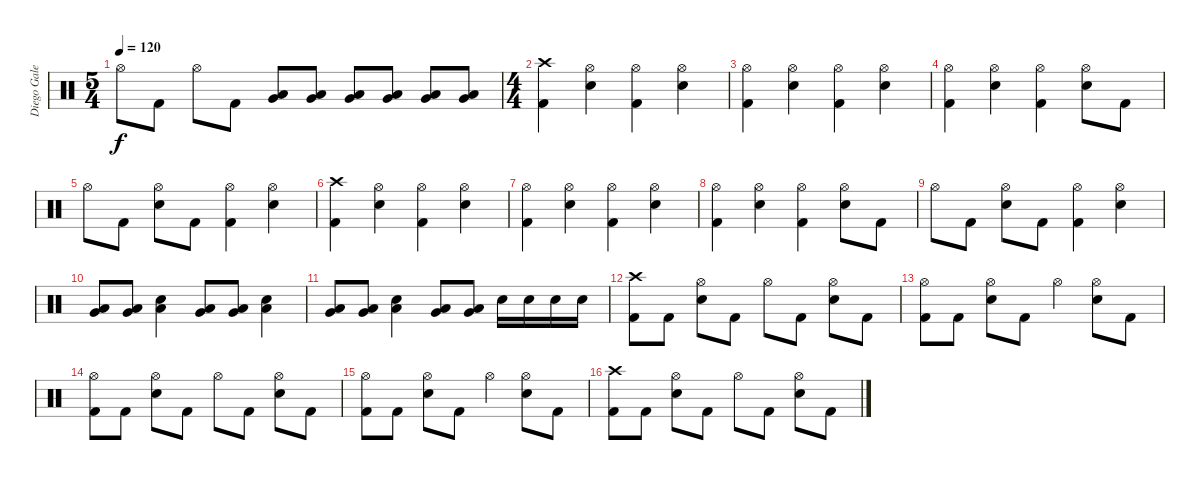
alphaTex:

\track ("Diego Galeri (batteria)" "Diego Gale") {instrument percussion}
\staff {score}
\articulation defaults
\ts (5 4)
\tempo 120
\clef neutral
\ks c "Hi-Hat (open)".8{dy f} "Kick (hit) 2".8 "Hi-Hat (open)".8 "Kick (hit) 2".8
("Low Tom (hit)" "Very Low Tom (hit)").8 ("Low Tom (hit)" "Very Low Tom (hit)").8 ("Low Tom (hit)" "Very Low Tom (hit)").8 ("Low Tom (hit)" "Very Low Tom (hit)").8 ("Low Tom (hit)" "Very Low Tom (hit)").8 ("Low Tom (hit)" "Very Low Tom (hit)").8 |
\ts (4 4)
("Kick (hit) 2" "Crash high (hit)").4 ("Hi-Hat (open)" "Electric Snare (hit)").4 ("Hi-Hat (open)" "Kick (hit) 2").4 ("Hi-Hat (open)" "Electric Snare (hit)").4 |
("Hi-Hat (open)" "Kick (hit) 2").4 ("Hi-Hat (open)" "Electric Snare (hit)").4 ("Hi-Hat (open)" "Kick (hit) 2").4 ("Hi-Hat (open)" "Electric Snare (hit)").4 |
("Hi-Hat (open)" "Kick (hit) 2").4 ("Hi-Hat (open)" "Electric Snare (hit)").4 ("Hi-Hat (open)" "Kick (hit) 2").4 ("Hi-Hat (open)" "Electric Snare (hit)").8 "Kick (hit) 2".8 |
"Hi-Hat (open)".8 "Kick (hit) 2".8 ("Hi-Hat (open)" "Electric Snare (hit)").8 "Kick (hit) 2".8 ("Hi-Hat (open)" "Kick (hit) 2").4 ("Hi-Hat (open)" "Electric Snare (hit)").4 |
("Kick (hit) 2" "Crash high (hit)").4 ("Hi-Hat (open)" "Electric Snare (hit)").4 ("Hi-Hat (open)" "Kick (hit) 2").4 ("Hi-Hat (open)" "Electric Snare (hit)").4 |
("Hi-Hat (open)" "Kick (hit) 2").4 ("Hi-Hat (open)" "Electric Snare (hit)").4 ("Hi-Hat (open)" "Kick (hit) 2").4 ("Hi-Hat (open)" "Electric Snare (hit)").4 |
("Hi-Hat (open)" "Kick (hit) 2").4 ("Hi-Hat (open)" "Electric Snare (hit)").4 ("Hi-Hat (open)" "Kick (hit) 2").4 ("Hi-Hat (open)" "Electric Snare (hit)").8 "Kick (hit) 2".8 |
"Hi-Hat (open)".8 "Kick (hit) 2".8 ("Hi-Hat (open)" "Electric Snare (hit)").8 "Kick (hit) 2".8 ("Hi-Hat (open)" "Kick (hit) 2").4 ("Hi-Hat (open)" "Electric Snare (hit)").4 |
("Low Tom (hit)" "Very Low Tom (hit)").8 ("Low Tom (hit)" "Very Low Tom (hit)").8 ("Low Tom (hit)" "Electric Snare (hit)").4 ("Low Tom (hit)" "Very Low Tom (hit)").8 ("Low Tom (hit)" "Very Low Tom (hit)").8 ("Low Tom (hit)" "Electric Snare (hit)").4 |
("Low Tom (hit)" "Very Low Tom (hit)").8 ("Low Tom (hit)" "Very Low Tom (hit)").8 ("Low Tom (hit)" "Electric Snare (hit)").4 ("Low Tom (hit)" "Very Low Tom (hit)").8 ("Low Tom (hit)" "Very Low Tom (hit)").8 "Electric Snare (hit)".16 "Electric Snare (hit)".16 "Electric Snare (hit)".16 "Electric Snare (hit)".16 |
("Kick (hit) 2" "Crash high (hit)").8 "Kick (hit) 2".8 ("Hi-Hat (open)" "Electric Snare (hit)").8 "Kick (hit) 2".8 "Hi-Hat (open)".8 "Kick (hit) 2".8 ("Hi-Hat (open)" "Electric Snare (hit)").8 "Kick (hit) 2".8 |
("Hi-Hat (open)" "Kick (hit) 2").8 "Kick (hit) 2".8 ("Hi-Hat (open)" "Electric Snare (hit)").8 "Kick (hit) 2".8 "Hi-Hat (open)".4 ("Hi-Hat (open)" "Electric Snare (hit)").8 "Kick (hit) 2".8 |
("Hi-Hat (open)" "Kick (hit) 2").8 "Kick (hit) 2".8 ("Hi-Hat (open)" "Electric Snare (hit)").8 "Kick (hit) 2".8 "Hi-Hat (open)".8 "Kick (hit) 2".8 ("Hi-Hat (open)" "Electric Snare (hit)").8 "Kick (hit) 2".8 |
("Hi-Hat (open)" "Kick (hit) 2").8 "Kick (hit) 2".8 ("Hi-Hat (open)" "Electric Snare (hit)").8 "Kick (hit) 2".8 "Hi-Hat (open)".4 ("Hi-Hat (open)" "Electric Snare (hit)").8 "Kick (hit) 2".8 |
("Kick (hit) 2" "Crash high (hit)").8 "Kick (hit) 2".8 ("Hi-Hat (open)" "Electric Snare (hit)").8 "Kick (hit) 2".8 "Hi-Hat (open)".8 "Kick (hit) 2".8 ("Hi-Hat (open)" "Electric Snare (hit)").8 "Kick (hit) 2".8
